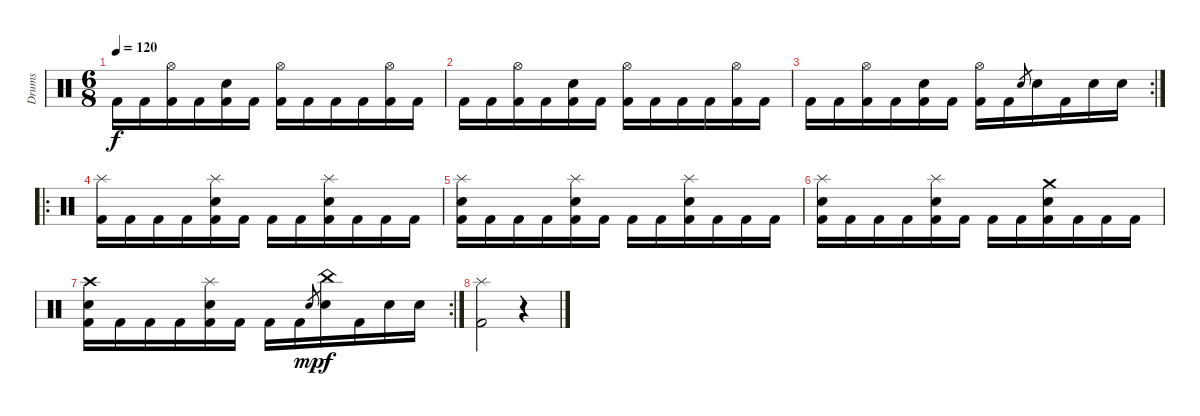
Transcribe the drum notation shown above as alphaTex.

\track ("Drums" "Drums") {instrument percussion}
\staff {score}
\articulation defaults
\ts (6 8)
\tempo 120
\clef neutral
\ks c "Kick (hit) 2".16{dy f} "Kick (hit) 2".16
("Hi-Hat (open)" "Kick (hit) 2").16 "Kick (hit) 2".16 ("Electric Snare (hit)" "Kick (hit) 2").16 "Kick (hit) 2".16 ("Hi-Hat (open)" "Kick (hit) 2").16 "Kick (hit) 2".16 "Kick (hit) 2".16 "Kick (hit) 2".16 ("Hi-Hat (open)" "Kick (hit) 2").16 "Kick (hit) 2".16 |
"Kick (hit) 2".16 "Kick (hit) 2".16 ("Hi-Hat (open)" "Kick (hit) 2").16 "Kick (hit) 2".16 ("Electric Snare (hit)" "Kick (hit) 2").16 "Kick (hit) 2".16 ("Hi-Hat (open)" "Kick (hit) 2").16 "Kick (hit) 2".16 "Kick (hit) 2".16 "Kick (hit) 2".16 ("Hi-Hat (open)" "Kick (hit) 2").16 "Kick (hit) 2".16 |
\rc 2 "Kick (hit) 2".16 "Kick (hit) 2".16
("Hi-Hat (open)" "Kick (hit) 2").16 "Kick (hit) 2".16 ("Electric Snare (hit)" "Kick (hit) 2").16 "Kick (hit) 2".16 ("Hi-Hat (open)" "Kick (hit) 2").16 "Kick (hit) 2".16 "Electric Snare (hit)".8{gr} "Electric Snare (hit)".16 "Kick (hit) 2".16 "Electric Snare (hit)".16 "Electric Snare (hit)".16 |
\ro
("Splash (hit)" "Kick (hit) 2").16 "Kick (hit) 2".16 "Kick (hit) 2".16 "Kick (hit) 2".16 ("Splash (hit)" "Electric Snare (hit)" "Kick (hit) 2").16 "Kick (hit) 2".16 "Kick (hit) 2".16 "Kick (hit) 2".16 ("Splash (hit)" "Electric Snare (hit)" "Kick (hit) 2").16 "Kick (hit) 2".16 "Kick (hit) 2".16 "Kick (hit) 2".16 |
("Splash (hit)" "Electric Snare (hit)" "Kick (hit) 2").16 "Kick (hit) 2".16 "Kick (hit) 2".16 "Kick (hit) 2".16 ("Splash (hit)" "Electric Snare (hit)" "Kick (hit) 2").16 "Kick (hit) 2".16 "Kick (hit) 2".16 "Kick (hit) 2".16 ("Splash (hit)" "Electric Snare (hit)" "Kick (hit) 2").16 "Kick (hit) 2".16 "Kick (hit) 2".16 "Kick (hit) 2".16 |
("Splash (hit)" "Electric Snare (hit)" "Kick (hit) 2").16 "Kick (hit) 2".16 "Kick (hit) 2".16 "Kick (hit) 2".16 ("Splash (hit)" "Electric Snare (hit)" "Kick (hit) 2").16 "Kick (hit) 2".16 "Kick (hit) 2".16 "Kick (hit) 2".16 ("Crash medium (hit)" "Electric Snare (hit)" "Kick (hit) 2").16 "Kick (hit) 2".16 "Kick (hit) 2".16 "Kick (hit) 2".16 |
\rc 2
("Crash high (hit)" "Electric Snare (hit)" "Kick (hit) 2").16 "Kick (hit) 2".16 "Kick (hit) 2".16 "Kick (hit) 2".16 ("Splash (hit)" "Electric Snare (hit)" "Kick (hit) 2").16 "Kick (hit) 2".16 "Kick (hit) 2".16 "Kick (hit) 2".16 "Electric Snare (hit)".8{gr dy mp} ("China (hit)" "Electric Snare (hit)").16{dy f} "Kick (hit) 2".16 "Electric Snare (hit)".16 "Electric Snare (hit)".16 |
("Splash (hit)" "Kick (hit) 2").2 r.4
